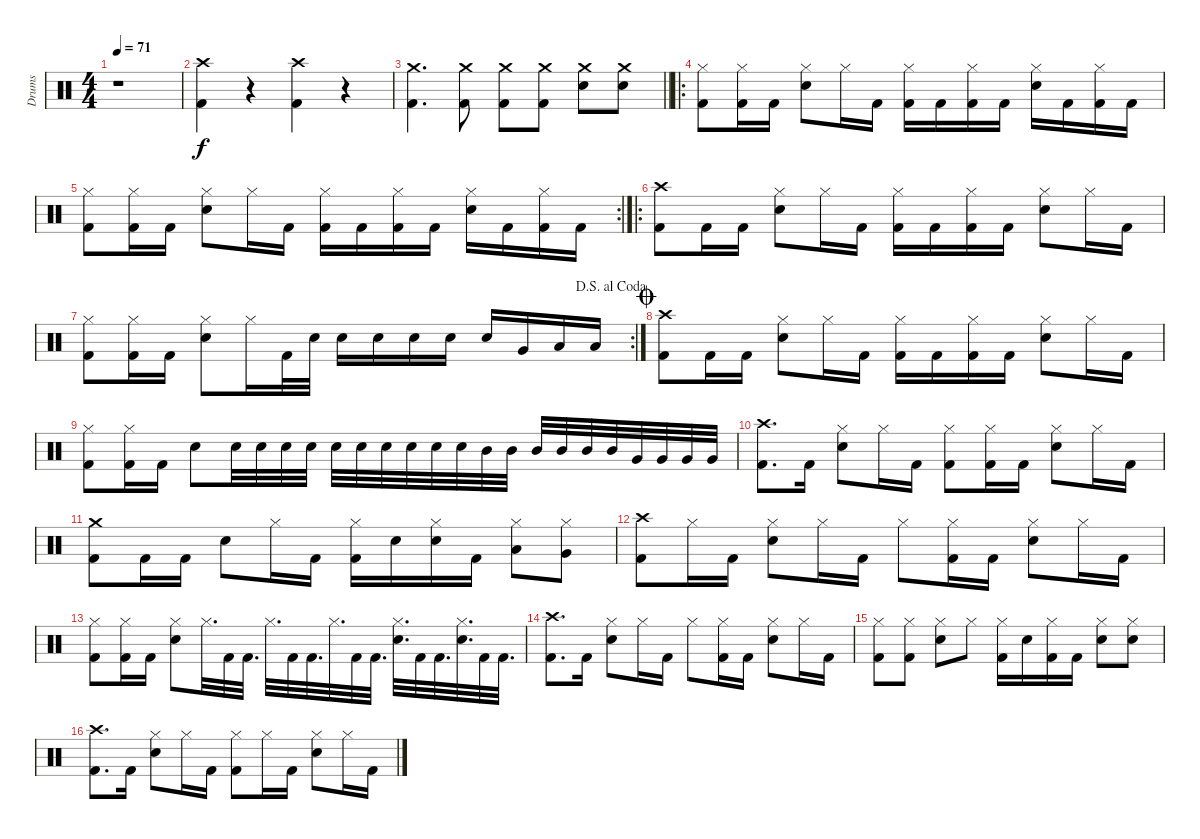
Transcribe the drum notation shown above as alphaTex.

\track ("Drums" "Drums") {instrument percussion}
\staff {score}
\articulation defaults
\ts (4 4)
\tempo 71
\clef neutral
\ks c
r.1{dy f} |
("Crash high (hit)" "Kick (hit) 2").4 r.4 ("Crash high (hit)" "Kick (hit) 2").4 r.4 |
\barLineRight lightlight
("Crash medium (hit)" "Kick (hit) 2").4{d} ("Kick (hit) 2" "Crash medium (hit)").8 ("Kick (hit) 2" "Crash medium (hit)").8 ("Kick (hit) 2" "Crash medium (hit)").8 ("Snare (hit) 2" "Crash medium (hit)").8 ("Snare (hit) 2" "Crash medium (hit)").8 |
\ro
("Hi-Hat (closed)" "Kick (hit) 2").8 ("Hi-Hat (closed)" "Kick (hit) 2").16 "Kick (hit) 2".16 ("Hi-Hat (closed)" "Snare (hit) 2").8 "Hi-Hat (closed)".16 "Kick (hit) 2".16 ("Hi-Hat (closed)" "Kick (hit) 2").16 "Kick (hit) 2".16 ("Hi-Hat (closed)" "Kick (hit) 2").16 "Kick (hit) 2".16 ("Hi-Hat (closed)" "Snare (hit) 2").16 "Kick (hit) 2".16 ("Hi-Hat (closed)" "Kick (hit) 2").16 "Kick (hit) 2".16 |
\rc 2
("Hi-Hat (closed)" "Kick (hit) 2").8 ("Hi-Hat (closed)" "Kick (hit) 2").16 "Kick (hit) 2".16 ("Hi-Hat (closed)" "Snare (hit) 2").8 "Hi-Hat (closed)".16 "Kick (hit) 2".16 ("Hi-Hat (closed)" "Kick (hit) 2").16 "Kick (hit) 2".16 ("Hi-Hat (closed)" "Kick (hit) 2").16 "Kick (hit) 2".16 ("Hi-Hat (closed)" "Snare (hit) 2").16 "Kick (hit) 2".16 ("Hi-Hat (closed)" "Kick (hit) 2").16 "Kick (hit) 2".16 |
\ro
("Crash high (hit)" "Kick (hit) 2").8 "Kick (hit) 2".16 "Kick (hit) 2".16 ("Snare (hit) 2" "Hi-Hat (closed)").8 "Hi-Hat (closed)".16 "Kick (hit) 2".16 ("Hi-Hat (closed)" "Kick (hit) 2").16 "Kick (hit) 2".16 ("Hi-Hat (closed)" "Kick (hit) 2").16 "Kick (hit) 2".16 ("Snare (hit) 2" "Hi-Hat (closed)").8 "Hi-Hat (closed)".16 "Kick (hit) 2".16 |
\rc 2
\jump dalsegnoalcoda
("Hi-Hat (closed)" "Kick (hit) 2").8 ("Hi-Hat (closed)" "Kick (hit) 2").16 "Kick (hit) 2".16 ("Hi-Hat (closed)" "Snare (hit) 2").8 "Hi-Hat (closed)".16 "Kick (hit) 2".32 "Snare (hit) 2".32 "Snare (hit) 2".16 "Snare (hit) 2".16 "Snare (hit) 2".16 "Snare (hit) 2".16 "Snare (hit) 2".16 "Very Low Tom (hit)".16 "Low Floor Tom (hit)".16 "Low Floor Tom (hit)".16 |
\jump coda
("Kick (hit) 2" "Crash high (hit)").8 "Kick (hit) 2".16 "Kick (hit) 2".16 ("Snare (hit) 2" "Hi-Hat (closed)").8 "Hi-Hat (closed)".16 "Kick (hit) 2".16 ("Hi-Hat (closed)" "Kick (hit) 2").16 "Kick (hit) 2".16 ("Hi-Hat (closed)" "Kick (hit) 2").16 "Kick (hit) 2".16 ("Hi-Hat (closed)" "Snare (hit) 2").8 "Hi-Hat (closed)".16 "Kick (hit) 2".16 |
("Hi-Hat (closed)" "Kick (hit) 2").8 ("Hi-Hat (closed)" "Kick (hit) 2").16 "Kick (hit) 2".16 "Snare (hit) 2".8 "Snare (hit) 2".32 "Snare (hit) 2".32 "Snare (hit) 2".32 "Snare (hit) 2".32 "Snare (hit) 2".32 "Snare (hit) 2".32 "Snare (hit) 2".32 "Snare (hit) 2".32 "Snare (hit) 2".32 "Snare (hit) 2".32 "Mid Tom (hit)".32 "Mid Tom (hit)".32 "Mid Tom (hit)".32 "Mid Tom (hit)".32 "Mid Tom (hit)".32 "Mid Tom (hit)".32 "Very Low Tom (hit)".32 "Very Low Tom (hit)".32 "Very Low Tom (hit)".32 "Very Low Tom (hit)".32 |
("Crash high (hit)" "Kick (hit) 2").8{d} "Kick (hit) 2".16 ("Snare (hit) 2" "Hi-Hat (closed)").8 "Hi-Hat (closed)".16 "Kick (hit) 2".16 ("Hi-Hat (closed)" "Kick (hit) 2").8 ("Kick (hit) 2" "Hi-Hat (closed)").16 "Kick (hit) 2".16 ("Snare (hit) 2" "Hi-Hat (closed)").8 "Hi-Hat (closed)".16 "Kick (hit) 2".16 |
("Crash medium (hit)" "Kick (hit) 2").8 "Kick (hit) 2".16 "Kick (hit) 2".16 "Snare (hit) 2".8 "Hi-Hat (closed)".16 "Kick (hit) 2".16 ("Hi-Hat (closed)" "Kick (hit) 2").16 "Snare (hit) 2".16 ("Hi-Hat (closed)" "Snare (hit) 2").16 "Kick (hit) 2".16 ("Hi-Hat (closed)" "Low Tom (hit)").8 ("Hi-Hat (closed)" "Very Low Tom (hit)").8 |
("Crash high (hit)" "Kick (hit) 2").8 "Hi-Hat (closed)".16 "Kick (hit) 2".16 ("Hi-Hat (closed)" "Snare (hit) 2").8 "Hi-Hat (closed)".16 "Kick (hit) 2".16 "Hi-Hat (closed)".8 ("Hi-Hat (closed)" "Kick (hit) 2").16 "Kick (hit) 2".16 ("Hi-Hat (closed)" "Snare (hit) 2").8 "Hi-Hat (closed)".16 "Kick (hit) 2".16 |
("Hi-Hat (closed)" "Kick (hit) 2").8 ("Hi-Hat (closed)" "Kick (hit) 2").16 "Kick (hit) 2".16 ("Hi-Hat (closed)" "Snare (hit) 2").8 "Hi-Hat (closed)".32{d} "Kick (hit) 2".32 "Kick (hit) 2".32{d} "Hi-Hat (closed)".32{d} "Kick (hit) 2".32 "Kick (hit) 2".32{d} "Hi-Hat (closed)".32{d} "Kick (hit) 2".32 "Kick (hit) 2".32{d} ("Snare (hit) 2" "Hi-Hat (closed)").32{d} "Kick (hit) 2".32 "Kick (hit) 2".32{d} ("Snare (hit) 2" "Hi-Hat (closed)").32{d} "Kick (hit) 2".32 "Kick (hit) 2".32{d} |
("Crash high (hit)" "Kick (hit) 2").8{d} "Kick (hit) 2".16 ("Hi-Hat (closed)" "Snare (hit) 2").8 "Hi-Hat (closed)".16 "Kick (hit) 2".16 "Hi-Hat (closed)".8 ("Hi-Hat (closed)" "Kick (hit) 2").16 "Kick (hit) 2".16 ("Hi-Hat (closed)" "Snare (hit) 2").8 "Hi-Hat (closed)".16 "Kick (hit) 2".16 |
("Kick (hit) 2" "Hi-Hat (closed)").8 ("Kick (hit) 2" "Hi-Hat (closed)").8 ("Hi-Hat (closed)" "Snare (hit) 2").8 "Hi-Hat (closed)".8 ("Hi-Hat (closed)" "Kick (hit) 2").16 "Snare (hit) 2".16 ("Kick (hit) 2" "Hi-Hat (closed)").16 "Kick (hit) 2".16 ("Hi-Hat (closed)" "Snare (hit) 2").8 ("Hi-Hat (closed)" "Snare (hit) 2").8 |
("Crash high (hit)" "Kick (hit) 2").8{d} "Kick (hit) 2".16 ("Snare (hit) 2" "Hi-Hat (closed)").8 "Hi-Hat (closed)".16 "Kick (hit) 2".16 ("Hi-Hat (closed)" "Kick (hit) 2").8 "Hi-Hat (closed)".16 "Kick (hit) 2".16 ("Snare (hit) 2" "Hi-Hat (closed)").8 "Hi-Hat (closed)".16 "Kick (hit) 2".16
